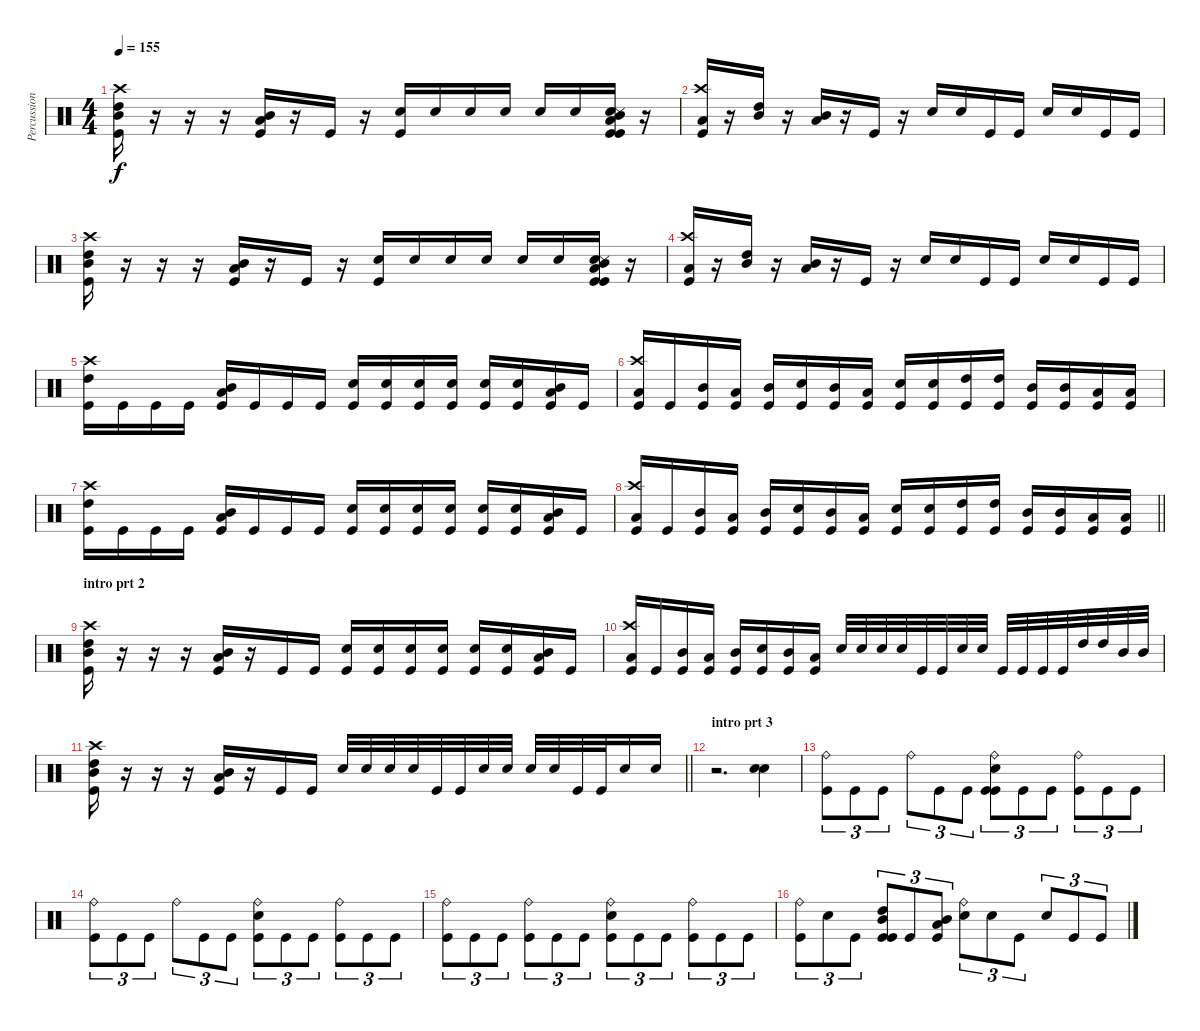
\track ("Percussion" "Percussion") {instrument percussion}
\staff {score}
\articulation defaults
\ts (4 4)
\tempo 155
\clef neutral
\ks c
("Kick (hit)" "High Tom (hit)" "Mid Tom (hit)" "Crash high (hit)").16{dy f} r.16 r.16 r.16 ("Kick (hit)" "Mid Tom (hit)" "Low Tom (hit)").16 r.16 "Kick (hit)".16 r.16 ("Snare (hit) 2" "Kick (hit)").16 "Snare (hit) 2".16 "Snare (hit) 2".16 "Snare (hit) 2".16 "Snare (hit) 2".16 "Snare (hit) 2".16 ("Kick (hit)" "Mid Tom (hit)" "Low Tom (hit)" "Snare (hit) 2" "Snare (side stick) 3" "Kick (hit)").16 r.16 |
("Kick (hit)" "Crash high (hit)" "Low Tom (hit)").16 r.16 ("High Tom (hit)" "Mid Tom (hit)").16 r.16 ("Mid Tom (hit)" "Low Tom (hit)").16 r.16 "Kick (hit)".16 r.16 "Snare (hit) 2".16 "Snare (hit) 2".16 "Kick (hit)".16 "Kick (hit)".16 "Snare (hit) 2".16 "Snare (hit) 2".16 "Kick (hit)".16 "Kick (hit)".16 |
("Kick (hit)" "High Tom (hit)" "Mid Tom (hit)" "Crash high (hit)").16 r.16 r.16 r.16 ("Kick (hit)" "Mid Tom (hit)" "Low Tom (hit)").16 r.16 "Kick (hit)".16 r.16 ("Snare (hit) 2" "Kick (hit)").16 "Snare (hit) 2".16 "Snare (hit) 2".16 "Snare (hit) 2".16 "Snare (hit) 2".16 "Snare (hit) 2".16 ("Kick (hit)" "Mid Tom (hit)" "Low Tom (hit)" "Snare (hit) 2" "Snare (side stick) 3" "Kick (hit)").16 r.16 |
("Kick (hit)" "Crash high (hit)" "Low Tom (hit)").16 r.16 ("High Tom (hit)" "Mid Tom (hit)").16 r.16 ("Mid Tom (hit)" "Low Tom (hit)").16 r.16 "Kick (hit)".16 r.16 "Snare (hit) 2".16 "Snare (hit) 2".16 "Kick (hit)".16 "Kick (hit)".16 "Snare (hit) 2".16 "Snare (hit) 2".16 "Kick (hit)".16 "Kick (hit)".16 |
("Kick (hit)" "Crash high (hit)" "High Tom (hit)").16 "Kick (hit)".16 "Kick (hit)".16 "Kick (hit)".16 ("Kick (hit)" "Mid Tom (hit)" "Low Tom (hit)").16 "Kick (hit)".16 "Kick (hit)".16 "Kick (hit)".16 ("Kick (hit)" "Snare (hit) 2").16 ("Kick (hit)" "Snare (hit) 2").16 ("Kick (hit)" "Snare (hit) 2").16 ("Kick (hit)" "Snare (hit) 2").16 ("Kick (hit)" "Snare (hit) 2").16 ("Kick (hit)" "Snare (hit) 2").16 ("Kick (hit)" "Mid Tom (hit)" "Low Tom (hit)").16 "Kick (hit)".16 |
("Kick (hit)" "Crash high (hit)" "Low Tom (hit)").16 "Kick (hit)".16 ("Kick (hit)" "Mid Tom (hit)").16 ("Kick (hit)" "Low Tom (hit)").16 ("Kick (hit)" "Mid Tom (hit)").16 ("Kick (hit)" "Snare (hit) 2").16 ("Kick (hit)" "Mid Tom (hit)").16 ("Kick (hit)" "Low Tom (hit)").16 ("Kick (hit)" "Snare (hit) 2").16 ("Kick (hit)" "Snare (hit) 2").16 ("Kick (hit)" "High Tom (hit)").16 ("Kick (hit)" "High Tom (hit)").16 ("Kick (hit)" "Mid Tom (hit)").16 ("Kick (hit)" "Mid Tom (hit)").16 ("Kick (hit)" "Low Tom (hit)").16 ("Kick (hit)" "Low Tom (hit)").16 |
("Kick (hit)" "Crash high (hit)" "High Tom (hit)").16 "Kick (hit)".16 "Kick (hit)".16 "Kick (hit)".16 ("Kick (hit)" "Mid Tom (hit)" "Low Tom (hit)").16 "Kick (hit)".16 "Kick (hit)".16 "Kick (hit)".16 ("Kick (hit)" "Snare (hit) 2").16 ("Kick (hit)" "Snare (hit) 2").16 ("Kick (hit)" "Snare (hit) 2").16 ("Kick (hit)" "Snare (hit) 2").16 ("Kick (hit)" "Snare (hit) 2").16 ("Kick (hit)" "Snare (hit) 2").16 ("Kick (hit)" "Mid Tom (hit)" "Low Tom (hit)").16 "Kick (hit)".16 |
\barLineRight lightlight
("Kick (hit)" "Crash high (hit)" "Low Tom (hit)").16 "Kick (hit)".16 ("Kick (hit)" "Mid Tom (hit)").16 ("Kick (hit)" "Low Tom (hit)").16 ("Kick (hit)" "Mid Tom (hit)").16 ("Kick (hit)" "Snare (hit) 2").16 ("Kick (hit)" "Mid Tom (hit)").16 ("Kick (hit)" "Low Tom (hit)").16 ("Kick (hit)" "Snare (hit) 2").16 ("Kick (hit)" "Snare (hit) 2").16 ("Kick (hit)" "High Tom (hit)").16 ("Kick (hit)" "High Tom (hit)").16 ("Kick (hit)" "Mid Tom (hit)").16 ("Kick (hit)" "Mid Tom (hit)").16 ("Kick (hit)" "Low Tom (hit)").16 ("Kick (hit)" "Low Tom (hit)").16 |
\section ("" "intro prt 2")
("Kick (hit)" "High Tom (hit)" "Mid Tom (hit)" "Crash high (hit)").16 r.16 r.16 r.16 ("Kick (hit)" "Mid Tom (hit)" "Low Tom (hit)").16 r.16 "Kick (hit)".16 "Kick (hit)".16 ("Kick (hit)" "Snare (hit) 2").16 ("Kick (hit)" "Snare (hit) 2").16 ("Kick (hit)" "Snare (hit) 2").16 ("Kick (hit)" "Snare (hit) 2").16 ("Kick (hit)" "Snare (hit) 2").16 ("Kick (hit)" "Snare (hit) 2").16 ("Kick (hit)" "Mid Tom (hit)" "Low Tom (hit)").16 "Kick (hit)".16 |
("Kick (hit)" "Crash high (hit)" "Low Tom (hit)").16 "Kick (hit)".16 ("Kick (hit)" "Mid Tom (hit)").16 ("Kick (hit)" "Low Tom (hit)").16 ("Kick (hit)" "Mid Tom (hit)").16 ("Kick (hit)" "Snare (hit) 2").16 ("Kick (hit)" "Mid Tom (hit)").16 ("Kick (hit)" "Low Tom (hit)").16 "Snare (hit) 2".32 "Snare (hit) 2".32 "Snare (hit) 2".32 "Snare (hit) 2".32 "Kick (hit)".32 "Kick (hit)".32 "Snare (hit) 2".32 "Snare (hit) 2".32 "Kick (hit)".32 "Kick (hit)".32 "Kick (hit)".32 "Kick (hit)".32 "High Tom (hit)".32 "High Tom (hit)".32 "Mid Tom (hit)".32 "Mid Tom (hit)".32 |
\barLineRight lightlight
("Kick (hit)" "High Tom (hit)" "Mid Tom (hit)" "Crash high (hit)").16 r.16 r.16 r.16 ("Kick (hit)" "Mid Tom (hit)" "Low Tom (hit)").16 r.16 "Kick (hit)".16 "Kick (hit)".16 "Snare (hit) 2".32 "Snare (hit) 2".32 "Snare (hit) 2".32 "Snare (hit) 2".32 "Kick (hit)".32 "Kick (hit)".32 "Snare (hit) 2".32 "Snare (hit) 2".32 "Snare (hit) 2".32 "Snare (hit) 2".32 "Kick (hit)".32 "Kick (hit)".32 "Snare (hit) 2".16 "Snare (hit) 2".16 |
\section ("" "intro prt 3")
r.2{d} ("Snare (hit) 2" "Snare (hit) 2").4 |
("Ride (bell)" "Kick (hit)").8{tu (3 2)} "Kick (hit)".8{tu (3 2)} "Kick (hit)".8{tu (3 2)} "Ride (bell)".8{tu (3 2)} "Kick (hit)".8{tu (3 2)} "Kick (hit)".8{tu (3 2)} ("Kick (hit)" "Snare (hit) 2" "Ride (bell)" "Kick (hit)").8{tu (3 2)} "Kick (hit)".8{tu (3 2)} "Kick (hit)".8{tu (3 2)} ("Kick (hit)" "Ride (bell)").8{tu (3 2)} "Kick (hit)".8{tu (3 2)} "Kick (hit)".8{tu (3 2)} |
("Ride (bell)" "Kick (hit)").8{tu (3 2)} "Kick (hit)".8{tu (3 2)} "Kick (hit)".8{tu (3 2)} "Ride (bell)".8{tu (3 2)} "Kick (hit)".8{tu (3 2)} "Kick (hit)".8{tu (3 2)} ("Kick (hit)" "Snare (hit) 2" "Ride (bell)").8{tu (3 2)} "Kick (hit)".8{tu (3 2)} "Kick (hit)".8{tu (3 2)} ("Kick (hit)" "Ride (bell)").8{tu (3 2)} "Kick (hit)".8{tu (3 2)} "Kick (hit)".8{tu (3 2)} |
("Ride (bell)" "Kick (hit)").8{tu (3 2)} "Kick (hit)".8{tu (3 2)} "Kick (hit)".8{tu (3 2)} ("Ride (bell)" "Kick (hit)").8{tu (3 2)} "Kick (hit)".8{tu (3 2)} "Kick (hit)".8{tu (3 2)} ("Kick (hit)" "Snare (hit) 2" "Ride (bell)").8{tu (3 2)} "Kick (hit)".8{tu (3 2)} "Kick (hit)".8{tu (3 2)} ("Kick (hit)" "Ride (bell)").8{tu (3 2)} "Kick (hit)".8{tu (3 2)} "Kick (hit)".8{tu (3 2)} |
("Kick (hit)" "Ride (bell)").8{tu (3 2)} "Snare (hit) 2".8{tu (3 2)} "Kick (hit)".8{tu (3 2)} ("Kick (hit)" "High Tom (hit)" "Mid Tom (hit)" "Kick (hit)").8{tu (3 2)} "Kick (hit)".8{tu (3 2)} ("Kick (hit)" "Mid Tom (hit)" "Low Tom (hit)").8{tu (3 2)} ("Snare (hit) 2" "Ride (bell)").8{tu (3 2)} "Snare (hit) 2".8{tu (3 2)} "Kick (hit)".8{tu (3 2)} "Snare (hit) 2".8{tu (3 2)} "Kick (hit)".8{tu (3 2)} "Kick (hit)".8{tu (3 2)}
